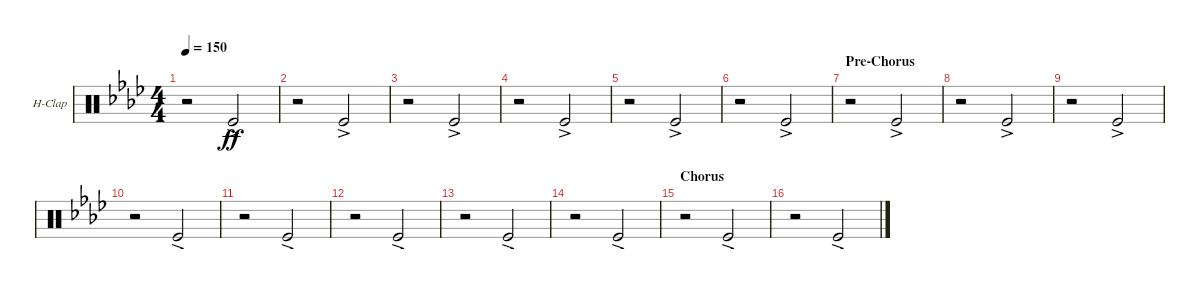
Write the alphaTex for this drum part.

\bracketExtendMode groupsimilarinstruments
\firstSystemTrackNameOrientation horizontal
\otherSystemsTrackNameOrientation horizontal
\track ("Hand Clap" "H-Clap") {instrument percussion}
\staff {score}
\articulation defaults
\ts (4 4)
\tempo 150
\clef neutral
\scale
0.333333
\ks ab
r.2{dy ff} "Kick (hit)"{ac}.2 |
\scale
0.333333 r.2 "Kick (hit)"{ac}.2 |
\scale
0.333333 r.2 "Kick (hit)"{ac}.2 |
\scale
0.333333 r.2 "Kick (hit)"{ac}.2 |
\scale
0.333333 r.2 "Kick (hit)"{ac}.2 |
\scale
0.333333 r.2 "Kick (hit)"{ac}.2 |
\section ("" "Pre-Chorus")
\scale
0.333333 r.2 "Kick (hit)"{ac}.2 |
\scale
0.333333 r.2 "Kick (hit)"{ac}.2 |
\scale
0.333333 r.2 "Kick (hit)"{ac}.2 |
\scale
0.333333 r.2 "Kick (hit)"{ac}.2 |
\scale
0.333333 r.2 "Kick (hit)"{ac}.2 |
\scale
0.333333 r.2 "Kick (hit)"{ac}.2 |
\scale
0.333333 r.2 "Kick (hit)"{ac}.2 |
\scale
0.333333 r.2 "Kick (hit)"{ac}.2 |
\section ("" "Chorus")
\scale
0.333333 r.2 "Kick (hit)"{ac}.2 |
\scale
0.333333 r.2 "Kick (hit)"{ac}.2
